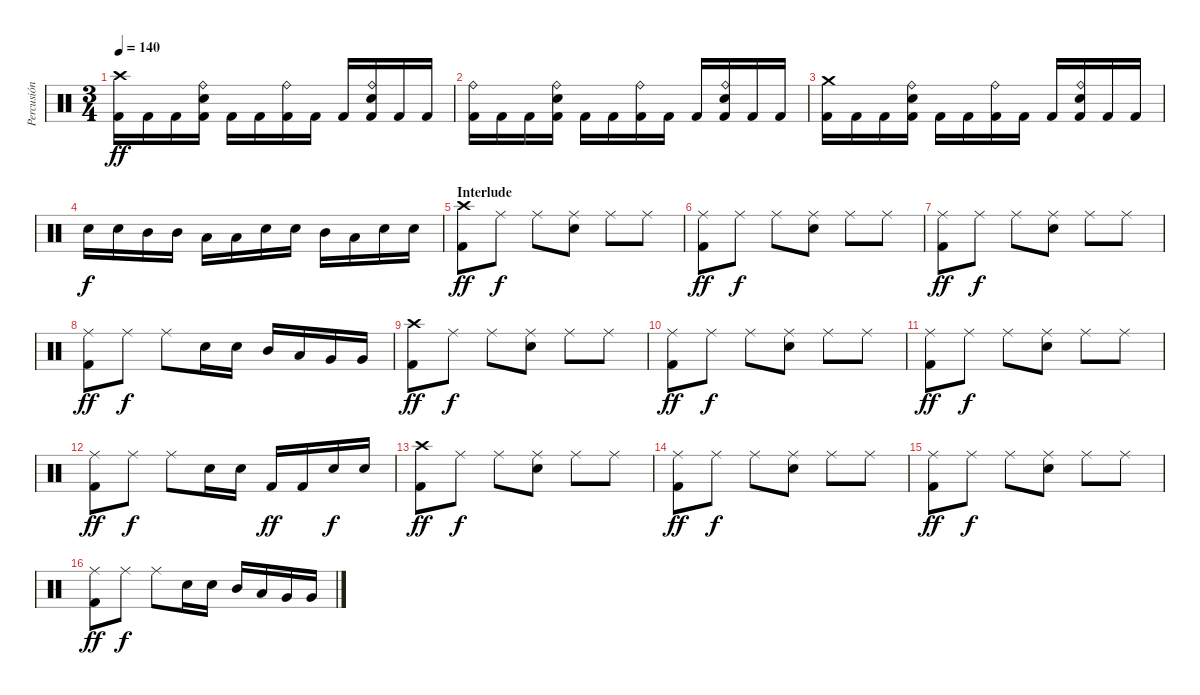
\track ("Percusión" "Percusión") {instrument percussion}
\staff {score}
\articulation defaults
\ts (3 4)
\tempo 140
\clef neutral
\ks c
("Crash high (hit)" "Kick (hit) 2").16{dy ff} "Kick (hit) 2".16 "Kick (hit) 2".16 ("Ride (bell)" "Electric Snare (hit)" "Kick (hit) 2").16 "Kick (hit) 2".16 "Kick (hit) 2".16 ("Ride (bell)" "Kick (hit) 2").16 "Kick (hit) 2".16 "Kick (hit) 2".16 ("Ride (bell)" "Electric Snare (hit)" "Kick (hit) 2").16 "Kick (hit) 2".16 "Kick (hit) 2".16 |
("Ride (bell)" "Kick (hit) 2").16 "Kick (hit) 2".16 "Kick (hit) 2".16 ("Ride (bell)" "Electric Snare (hit)" "Kick (hit) 2").16 "Kick (hit) 2".16 "Kick (hit) 2".16 ("Ride (bell)" "Kick (hit) 2").16 "Kick (hit) 2".16 "Kick (hit) 2".16 ("Ride (bell)" "Electric Snare (hit)" "Kick (hit) 2").16 "Kick (hit) 2".16 "Kick (hit) 2".16 |
("Crash medium (hit)" "Kick (hit) 2").16 "Kick (hit) 2".16 "Kick (hit) 2".16 ("Ride (bell)" "Electric Snare (hit)" "Kick (hit) 2").16 "Kick (hit) 2".16 "Kick (hit) 2".16 ("Ride (bell)" "Kick (hit) 2").16 "Kick (hit) 2".16 "Kick (hit) 2".16 ("Ride (bell)" "Electric Snare (hit)" "Kick (hit) 2").16 "Kick (hit) 2".16 "Kick (hit) 2".16 |
"Electric Snare (hit)".16{dy f} "Electric Snare (hit)".16 "Mid Tom (hit)".16 "Mid Tom (hit)".16 "Low Tom (hit)".16 "Low Tom (hit)".16 "Electric Snare (hit)".16 "Electric Snare (hit)".16 "Mid Tom (hit)".16 "Low Tom (hit)".16 "Electric Snare (hit)".16 "Electric Snare (hit)".16 |
\section ("" "Interlude")
("Crash high (hit)" "Kick (hit) 2").8{dy ff} "Ride (middle)".8{dy f} "Ride (middle)".8 ("Ride (middle)" "Electric Snare (hit)").8 "Ride (middle)".8 "Ride (middle)".8 |
("Ride (middle)" "Kick (hit) 2").8{dy ff} "Ride (middle)".8{dy f} "Ride (middle)".8 ("Ride (middle)" "Electric Snare (hit)").8 "Ride (middle)".8 "Ride (middle)".8 |
("Ride (middle)" "Kick (hit) 2").8{dy ff} "Ride (middle)".8{dy f} "Ride (middle)".8 ("Ride (middle)" "Electric Snare (hit)").8 "Ride (middle)".8 "Ride (middle)".8 |
("Ride (middle)" "Kick (hit) 2").8{dy ff} "Ride (middle)".8{dy f} "Ride (middle)".8 "Electric Snare (hit)".16 "Electric Snare (hit)".16 "Mid Tom (hit)".16 "Low Tom (hit)".16 "Very Low Tom (hit)".16 "Very Low Tom (hit)".16 |
("Crash high (hit)" "Kick (hit) 2").8{dy ff} "Ride (middle)".8{dy f} "Ride (middle)".8 ("Ride (middle)" "Electric Snare (hit)").8 "Ride (middle)".8 "Ride (middle)".8 |
("Ride (middle)" "Kick (hit) 2").8{dy ff} "Ride (middle)".8{dy f} "Ride (middle)".8 ("Ride (middle)" "Electric Snare (hit)").8 "Ride (middle)".8 "Ride (middle)".8 |
("Ride (middle)" "Kick (hit) 2").8{dy ff} "Ride (middle)".8{dy f} "Ride (middle)".8 ("Ride (middle)" "Electric Snare (hit)").8 "Ride (middle)".8 "Ride (middle)".8 |
("Ride (middle)" "Kick (hit) 2").8{dy ff} "Ride (middle)".8{dy f} "Ride (middle)".8 "Electric Snare (hit)".16 "Electric Snare (hit)".16 "Kick (hit) 2".16{dy ff} "Kick (hit) 2".16 "Electric Snare (hit)".16{dy f} "Electric Snare (hit)".16 |
("Crash high (hit)" "Kick (hit) 2").8{dy ff} "Ride (middle)".8{dy f} "Ride (middle)".8 ("Ride (middle)" "Electric Snare (hit)").8 "Ride (middle)".8 "Ride (middle)".8 |
("Ride (middle)" "Kick (hit) 2").8{dy ff} "Ride (middle)".8{dy f} "Ride (middle)".8 ("Ride (middle)" "Electric Snare (hit)").8 "Ride (middle)".8 "Ride (middle)".8 |
("Ride (middle)" "Kick (hit) 2").8{dy ff} "Ride (middle)".8{dy f} "Ride (middle)".8 ("Ride (middle)" "Electric Snare (hit)").8 "Ride (middle)".8 "Ride (middle)".8 |
("Ride (middle)" "Kick (hit) 2").8{dy ff} "Ride (middle)".8{dy f} "Ride (middle)".8 "Electric Snare (hit)".16 "Electric Snare (hit)".16 "Mid Tom (hit)".16 "Low Tom (hit)".16 "Very Low Tom (hit)".16 "Very Low Tom (hit)".16
